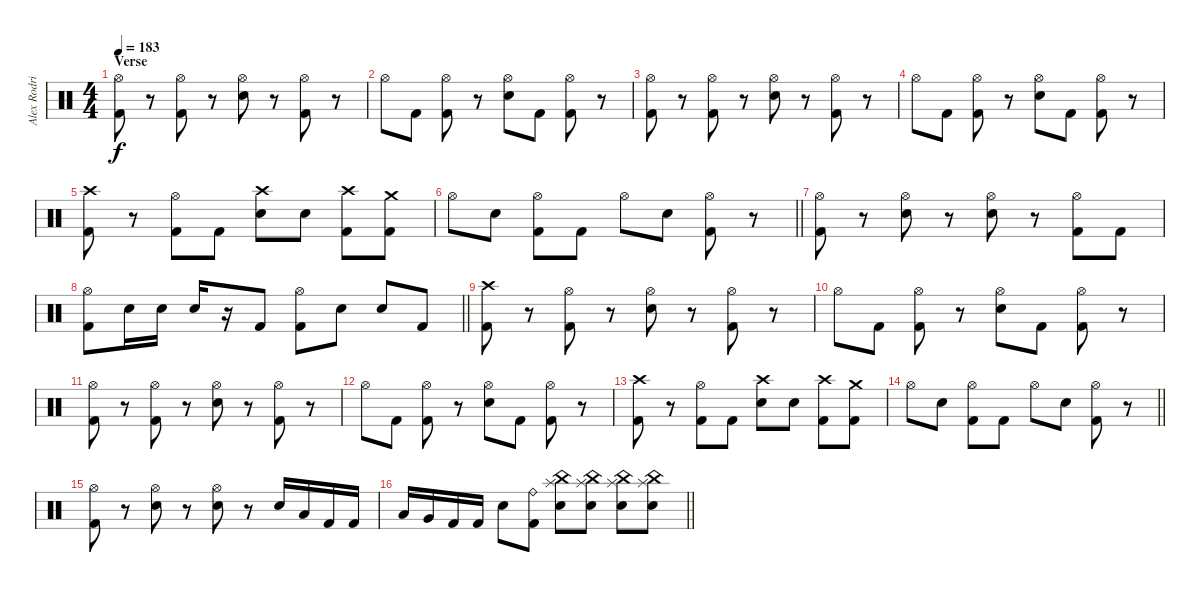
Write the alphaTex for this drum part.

\track ("Alex Rodriguez [Not Finished Yet]" "Alex Rodri") {mute instrument percussion}
\staff {score}
\articulation defaults
\ts (4 4)
\section ("" "Verse")
\tempo 183
\clef neutral
\ks c
("Hi-Hat (open)" "Kick (hit) 2").8{dy f} r.8 ("Hi-Hat (open)" "Kick (hit) 2").8 r.8 ("Hi-Hat (open)" "Electric Snare (hit)").8 r.8 ("Hi-Hat (open)" "Kick (hit) 2").8 r.8 |
"Hi-Hat (open)".8 "Kick (hit) 2".8 ("Hi-Hat (open)" "Kick (hit) 2").8 r.8 ("Hi-Hat (open)" "Electric Snare (hit)").8 "Kick (hit) 2".8 ("Hi-Hat (open)" "Kick (hit) 2").8 r.8 |
("Hi-Hat (open)" "Kick (hit) 2").8 r.8 ("Hi-Hat (open)" "Kick (hit) 2").8 r.8 ("Hi-Hat (open)" "Electric Snare (hit)").8 r.8 ("Hi-Hat (open)" "Kick (hit) 2").8 r.8 |
"Hi-Hat (open)".8 "Kick (hit) 2".8 ("Hi-Hat (open)" "Kick (hit) 2").8 r.8 ("Hi-Hat (open)" "Electric Snare (hit)").8 "Kick (hit) 2".8 ("Hi-Hat (open)" "Kick (hit) 2").8 r.8 |
("Crash high (hit)" "Kick (hit) 2").8 r.8 ("Hi-Hat (open)" "Kick (hit) 2").8 "Kick (hit) 2".8 ("Crash high (hit)" "Electric Snare (hit)").8 "Electric Snare (hit)".8 ("Crash high (hit)" "Kick (hit) 2").8 ("Crash medium (hit)" "Kick (hit) 2").8 |
\barLineRight lightlight "Hi-Hat (open)".8 "Electric Snare (hit)".8
("Hi-Hat (open)" "Kick (hit) 2").8 "Kick (hit) 2".8 "Hi-Hat (open)".8 "Electric Snare (hit)".8 ("Hi-Hat (open)" "Kick (hit) 2").8 r.8 |
("Hi-Hat (open)" "Kick (hit) 2").8 r.8 ("Hi-Hat (open)" "Electric Snare (hit)").8 r.8 ("Hi-Hat (open)" "Electric Snare (hit)").8 r.8 ("Hi-Hat (open)" "Kick (hit) 2").8 "Kick (hit) 2".8 |
\barLineRight lightlight
("Hi-Hat (open)" "Kick (hit) 2").8 "Electric Snare (hit)".16 "Electric Snare (hit)".16 "Electric Snare (hit)".16 r.16 "Kick (hit) 2".8 ("Hi-Hat (open)" "Kick (hit) 2").8 "Electric Snare (hit)".8 "Electric Snare (hit)".8 "Kick (hit) 2".8 |
("Crash high (hit)" "Kick (hit) 2").8 r.8 ("Hi-Hat (open)" "Kick (hit) 2").8 r.8 ("Hi-Hat (open)" "Electric Snare (hit)").8 r.8 ("Hi-Hat (open)" "Kick (hit) 2").8 r.8 |
"Hi-Hat (open)".8 "Kick (hit) 2".8 ("Hi-Hat (open)" "Kick (hit) 2").8 r.8 ("Hi-Hat (open)" "Electric Snare (hit)").8 "Kick (hit) 2".8 ("Hi-Hat (open)" "Kick (hit) 2").8 r.8 |
("Hi-Hat (open)" "Kick (hit) 2").8 r.8 ("Hi-Hat (open)" "Kick (hit) 2").8 r.8 ("Hi-Hat (open)" "Electric Snare (hit)").8 r.8 ("Hi-Hat (open)" "Kick (hit) 2").8 r.8 |
"Hi-Hat (open)".8 "Kick (hit) 2".8 ("Hi-Hat (open)" "Kick (hit) 2").8 r.8 ("Hi-Hat (open)" "Electric Snare (hit)").8 "Kick (hit) 2".8 ("Hi-Hat (open)" "Kick (hit) 2").8 r.8 |
("Crash high (hit)" "Kick (hit) 2").8 r.8 ("Hi-Hat (open)" "Kick (hit) 2").8 "Kick (hit) 2".8 ("Crash high (hit)" "Electric Snare (hit)").8 "Electric Snare (hit)".8 ("Crash high (hit)" "Kick (hit) 2").8 ("Crash medium (hit)" "Kick (hit) 2").8 |
\barLineRight lightlight "Hi-Hat (open)".8 "Electric Snare (hit)".8
("Hi-Hat (open)" "Kick (hit) 2").8 "Kick (hit) 2".8 "Hi-Hat (open)".8 "Electric Snare (hit)".8 ("Hi-Hat (open)" "Kick (hit) 2").8 r.8 |
("Hi-Hat (open)" "Kick (hit) 2").8 r.8 ("Hi-Hat (open)" "Electric Snare (hit)").8 r.8 ("Hi-Hat (open)" "Electric Snare (hit)").8 r.8 "Electric Snare (hit)".16 "Low Tom (hit)".16 "Kick (hit) 2".16 "Kick (hit) 2".16 |
\barLineRight lightlight "Low Tom (hit)".16 "Very Low Tom (hit)".16 "Kick (hit) 2".16 "Kick (hit) 2".16 "Electric Snare (hit)".8
("Ride (bell)" "Kick (hit) 2").8 ("Splash (hit)" "China (hit)" "Electric Snare (hit)").8 ("Splash (hit)" "China (hit)" "Electric Snare (hit)").8 ("Splash (hit)" "China (hit)" "Electric Snare (hit)").8 ("Splash (hit)" "China (hit)" "Electric Snare (hit)").8
